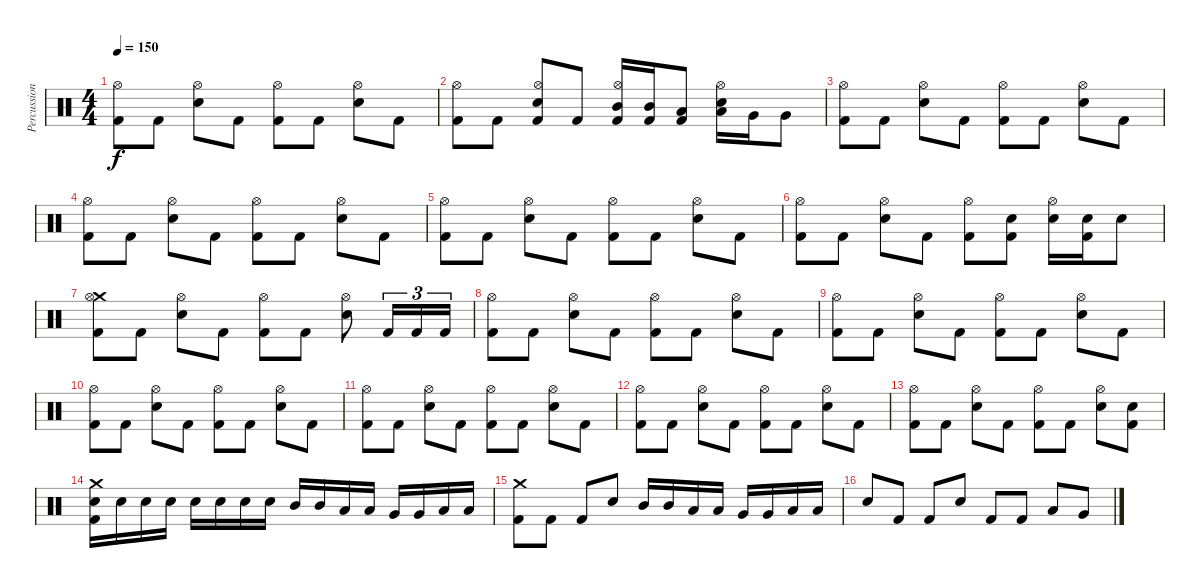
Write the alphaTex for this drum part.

\track ("Percussion" "Percussion") {instrument percussion}
\staff {score}
\articulation defaults
\ts (4 4)
\tempo 150
\clef neutral
\ks c
("Kick (hit) 2" "Hi-Hat (open)").8{dy f} "Kick (hit) 2".8 ("Electric Snare (hit)" "Hi-Hat (open)").8 "Kick (hit) 2".8 ("Kick (hit) 2" "Hi-Hat (open)").8 "Kick (hit) 2".8 ("Electric Snare (hit)" "Hi-Hat (open)").8 "Kick (hit) 2".8 |
("Kick (hit) 2" "Hi-Hat (open)").8 "Kick (hit) 2".8 ("Electric Snare (hit)" "Kick (hit) 2" "Hi-Hat (open)").8 "Kick (hit) 2".8 ("Kick (hit) 2" "Mid Tom (hit)" "Hi-Hat (open)").16 ("Kick (hit) 2" "Mid Tom (hit)").16 ("Kick (hit) 2" "Low Tom (hit)").8 ("Electric Snare (hit)" "Low Tom (hit)" "Hi-Hat (open)").16 "Very Low Tom (hit)".16 "Very Low Tom (hit)".8 |
("Kick (hit) 2" "Hi-Hat (open)").8 "Kick (hit) 2".8 ("Electric Snare (hit)" "Hi-Hat (open)").8 "Kick (hit) 2".8 ("Kick (hit) 2" "Hi-Hat (open)").8 "Kick (hit) 2".8 ("Electric Snare (hit)" "Hi-Hat (open)").8 "Kick (hit) 2".8 |
("Kick (hit) 2" "Hi-Hat (open)").8 "Kick (hit) 2".8 ("Electric Snare (hit)" "Hi-Hat (open)").8 "Kick (hit) 2".8 ("Kick (hit) 2" "Hi-Hat (open)").8 "Kick (hit) 2".8 ("Electric Snare (hit)" "Hi-Hat (open)").8 "Kick (hit) 2".8 |
("Kick (hit) 2" "Hi-Hat (open)").8 "Kick (hit) 2".8 ("Electric Snare (hit)" "Hi-Hat (open)").8 "Kick (hit) 2".8 ("Kick (hit) 2" "Hi-Hat (open)").8 "Kick (hit) 2".8 ("Electric Snare (hit)" "Hi-Hat (open)").8 "Kick (hit) 2".8 |
("Kick (hit) 2" "Hi-Hat (open)").8 "Kick (hit) 2".8 ("Electric Snare (hit)" "Hi-Hat (open)").8 "Kick (hit) 2".8 ("Kick (hit) 2" "Hi-Hat (open)").8 ("Kick (hit) 2" "Snare (hit) 2").8 ("Snare (hit) 2" "Hi-Hat (open)").16 ("Kick (hit) 2" "Snare (hit) 2").16 "Electric Snare (hit)".8 |
("Kick (hit) 2" "Crash medium (hit)" "Hi-Hat (open)").8 "Kick (hit) 2".8 ("Electric Snare (hit)" "Hi-Hat (open)").8 "Kick (hit) 2".8 ("Kick (hit) 2" "Hi-Hat (open)").8 "Kick (hit) 2".8 ("Electric Snare (hit)" "Hi-Hat (open)").8 "Kick (hit) 2".16{tu (3 2)} "Kick (hit) 2".16{tu (3 2)} "Kick (hit) 2".16{tu (3 2)} |
("Kick (hit) 2" "Hi-Hat (open)").8 "Kick (hit) 2".8 ("Electric Snare (hit)" "Hi-Hat (open)").8 "Kick (hit) 2".8 ("Kick (hit) 2" "Hi-Hat (open)").8 "Kick (hit) 2".8 ("Electric Snare (hit)" "Hi-Hat (open)").8 "Kick (hit) 2".8 |
("Kick (hit) 2" "Hi-Hat (open)").8 "Kick (hit) 2".8 ("Electric Snare (hit)" "Hi-Hat (open)").8 "Kick (hit) 2".8 ("Kick (hit) 2" "Hi-Hat (open)").8 "Kick (hit) 2".8 ("Electric Snare (hit)" "Hi-Hat (open)").8 "Kick (hit) 2".8 |
("Kick (hit) 2" "Hi-Hat (open)").8 "Kick (hit) 2".8 ("Electric Snare (hit)" "Hi-Hat (open)").8 "Kick (hit) 2".8 ("Kick (hit) 2" "Hi-Hat (open)").8 "Kick (hit) 2".8 ("Electric Snare (hit)" "Hi-Hat (open)").8 "Kick (hit) 2".8 |
("Kick (hit) 2" "Hi-Hat (open)").8 "Kick (hit) 2".8 ("Electric Snare (hit)" "Hi-Hat (open)").8 "Kick (hit) 2".8 ("Kick (hit) 2" "Hi-Hat (open)").8 "Kick (hit) 2".8 ("Electric Snare (hit)" "Hi-Hat (open)").8 "Kick (hit) 2".8 |
("Kick (hit) 2" "Hi-Hat (open)").8 "Kick (hit) 2".8 ("Electric Snare (hit)" "Hi-Hat (open)").8 "Kick (hit) 2".8 ("Kick (hit) 2" "Hi-Hat (open)").8 "Kick (hit) 2".8 ("Electric Snare (hit)" "Hi-Hat (open)").8 "Kick (hit) 2".8 |
("Kick (hit) 2" "Hi-Hat (open)").8 "Kick (hit) 2".8 ("Electric Snare (hit)" "Hi-Hat (open)").8 "Kick (hit) 2".8 ("Kick (hit) 2" "Hi-Hat (open)").8 "Kick (hit) 2".8 ("Electric Snare (hit)" "Hi-Hat (open)").8 ("Kick (hit) 2" "Electric Snare (hit)").8 |
("Crash medium (hit)" "Snare (hit) 2" "Kick (hit) 2").16 "Snare (hit) 2".16 "Snare (hit) 2".16 "Snare (hit) 2".16 "Electric Snare (hit)".16 "Electric Snare (hit)".16 "Electric Snare (hit)".16 "Electric Snare (hit)".16 "Mid Tom (hit)".16 "Mid Tom (hit)".16 "Low Tom (hit)".16 "Low Tom (hit)".16 "Very Low Tom (hit)".16 "Very Low Tom (hit)".16 "Low Floor Tom (hit)".16 "Low Floor Tom (hit)".16 |
("Crash medium (hit)" "Kick (hit) 2").8 "Kick (hit) 2".8 "Kick (hit) 2".8 "Electric Snare (hit)".8 "Mid Tom (hit)".16 "Mid Tom (hit)".16 "Low Tom (hit)".16 "Low Tom (hit)".16 "Very Low Tom (hit)".16 "Very Low Tom (hit)".16 "Low Floor Tom (hit)".16 "Low Floor Tom (hit)".16 |
"Snare (hit) 2".8 "Kick (hit) 2".8 "Kick (hit) 2".8 "Electric Snare (hit)".8 "Kick (hit) 2".8 "Kick (hit) 2".8 "Low Tom (hit)".8 "Very Low Tom (hit)".8
